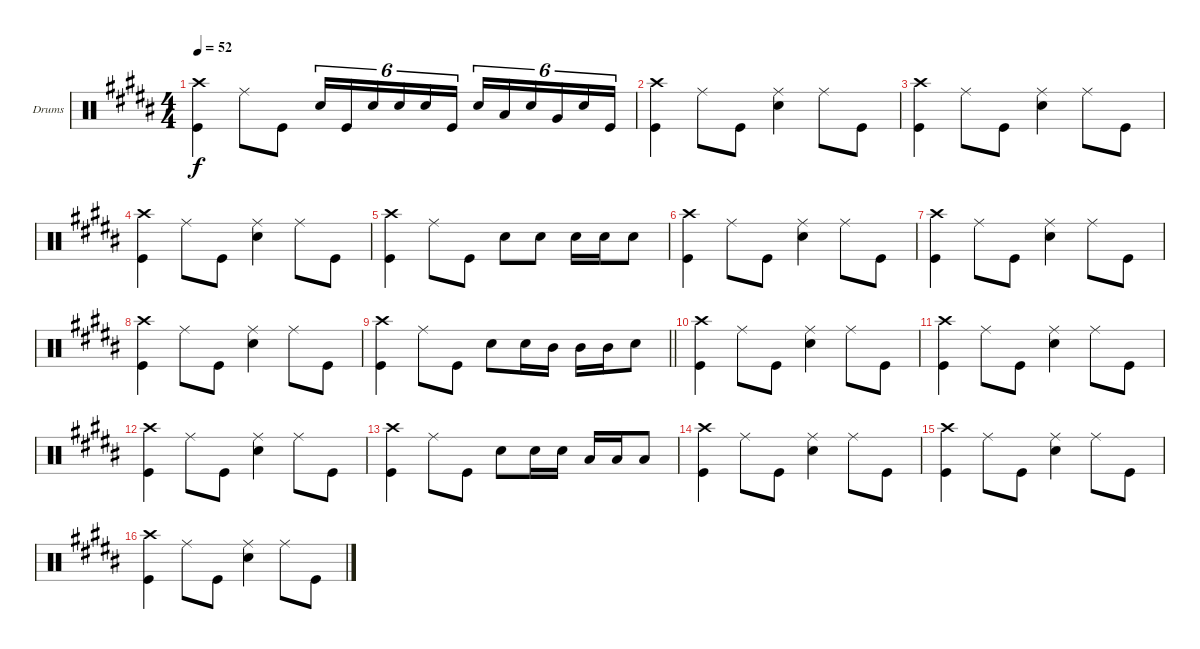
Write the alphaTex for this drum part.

\bracketExtendMode groupsimilarinstruments
\firstSystemTrackNameOrientation horizontal
\otherSystemsTrackNameOrientation horizontal
\track ("Drumkit" "Drums") {solo instrument percussion}
\staff {score}
\articulation defaults
\ts (4 4)
\tempo 52
\clef neutral
\ks g#minor
("Crash high (hit)" "Kick (hit)").4{dy f} "Ride (middle)".8 "Kick (hit)".8 "Snare (hit) 2".16{tu (6 4)} "Kick (hit)".16{tu (6 4)} "Snare (hit) 2".16{tu (6 4)} "Snare (hit) 2".16{tu (6 4)} "Snare (hit) 2".16{tu (6 4)} "Kick (hit)".16{tu (6 4)} "Snare (hit) 2".16{tu (6 4)} "Low Tom (hit)".16{tu (6 4)} "Snare (hit) 2".16{tu (6 4)} "Very Low Tom (hit)".16{tu (6 4)} "Snare (hit) 2".16{tu (6 4)} "Kick (hit)".16{tu (6 4)} |
("Crash high (hit)" "Kick (hit)").4 "Ride (middle)".8 "Kick (hit)".8 ("Ride (middle)" "Snare (hit) 2").4 "Ride (middle)".8 "Kick (hit)".8 |
("Crash high (hit)" "Kick (hit)").4 "Ride (middle)".8 "Kick (hit)".8 ("Ride (middle)" "Snare (hit) 2").4 "Ride (middle)".8 "Kick (hit)".8 |
("Crash high (hit)" "Kick (hit)").4 "Ride (middle)".8 "Kick (hit)".8 ("Ride (middle)" "Snare (hit) 2").4 "Ride (middle)".8 "Kick (hit)".8 |
("Crash high (hit)" "Kick (hit)").4 "Ride (middle)".8 "Kick (hit)".8 "Snare (hit) 2".8 "Snare (hit) 2".8 "Snare (hit) 2".16 "Snare (hit) 2".16 "Snare (hit) 2".8 |
("Crash high (hit)" "Kick (hit)").4 "Ride (middle)".8 "Kick (hit)".8 ("Ride (middle)" "Snare (hit) 2").4 "Ride (middle)".8 "Kick (hit)".8 |
("Crash high (hit)" "Kick (hit)").4 "Ride (middle)".8 "Kick (hit)".8 ("Ride (middle)" "Snare (hit) 2").4 "Ride (middle)".8 "Kick (hit)".8 |
("Crash high (hit)" "Kick (hit)").4 "Ride (middle)".8 "Kick (hit)".8 ("Ride (middle)" "Snare (hit) 2").4 "Ride (middle)".8 "Kick (hit)".8 |
\barLineRight lightlight
("Crash high (hit)" "Kick (hit)").4 "Ride (middle)".8 "Kick (hit)".8 "Snare (hit) 2".8 "Snare (hit) 2".16 "Mid Tom (hit)".16 "Mid Tom (hit)".16 "Mid Tom (hit)".16 "Snare (hit) 2".8 |
("Crash high (hit)" "Kick (hit)").4 "Ride (middle)".8 "Kick (hit)".8 ("Ride (middle)" "Snare (hit) 2").4 "Ride (middle)".8 "Kick (hit)".8 |
("Crash high (hit)" "Kick (hit)").4 "Ride (middle)".8 "Kick (hit)".8 ("Ride (middle)" "Snare (hit) 2").4 "Ride (middle)".8 "Kick (hit)".8 |
("Crash high (hit)" "Kick (hit)").4 "Ride (middle)".8 "Kick (hit)".8 ("Ride (middle)" "Snare (hit) 2").4 "Ride (middle)".8 "Kick (hit)".8 |
("Crash high (hit)" "Kick (hit)").4 "Ride (middle)".8 "Kick (hit)".8 "Snare (hit) 2".8 "Snare (hit) 2".16 "Snare (hit) 2".16 "Low Tom (hit)".16 "Low Tom (hit)".16 "Low Tom (hit)".8 |
("Crash high (hit)" "Kick (hit)").4 "Ride (middle)".8 "Kick (hit)".8 ("Ride (middle)" "Snare (hit) 2").4 "Ride (middle)".8 "Kick (hit)".8 |
("Crash high (hit)" "Kick (hit)").4 "Ride (middle)".8 "Kick (hit)".8 ("Ride (middle)" "Snare (hit) 2").4 "Ride (middle)".8 "Kick (hit)".8 |
("Crash high (hit)" "Kick (hit)").4 "Ride (middle)".8 "Kick (hit)".8 ("Ride (middle)" "Snare (hit) 2").4 "Ride (middle)".8 "Kick (hit)".8
